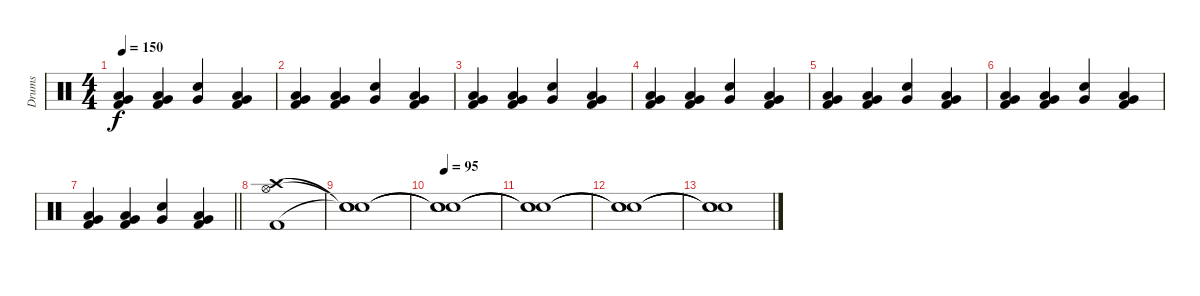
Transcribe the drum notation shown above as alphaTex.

\track ("Drums" "Drums") {instrument percussion}
\staff {score}
\articulation defaults
\ts (4 4)
\tempo 150
\clef neutral
\ks c
("Very Low Tom (hit)" "Low Floor Tom (hit)" "Kick (hit) 2").4{dy f} ("Very Low Tom (hit)" "Low Floor Tom (hit)" "Kick (hit) 2").4 ("Electric Snare (hit)" "Very Low Tom (hit)").4 ("Very Low Tom (hit)" "Low Floor Tom (hit)" "Kick (hit) 2").4 |
("Very Low Tom (hit)" "Low Floor Tom (hit)" "Kick (hit) 2").4 ("Very Low Tom (hit)" "Low Floor Tom (hit)" "Kick (hit) 2").4 ("Electric Snare (hit)" "Very Low Tom (hit)").4 ("Very Low Tom (hit)" "Low Floor Tom (hit)" "Kick (hit) 2").4 |
("Very Low Tom (hit)" "Low Floor Tom (hit)" "Kick (hit) 2").4 ("Very Low Tom (hit)" "Low Floor Tom (hit)" "Kick (hit) 2").4 ("Electric Snare (hit)" "Very Low Tom (hit)").4 ("Very Low Tom (hit)" "Low Floor Tom (hit)" "Kick (hit) 2").4 |
("Very Low Tom (hit)" "Low Floor Tom (hit)" "Kick (hit) 2").4 ("Very Low Tom (hit)" "Low Floor Tom (hit)" "Kick (hit) 2").4 ("Electric Snare (hit)" "Very Low Tom (hit)").4 ("Very Low Tom (hit)" "Low Floor Tom (hit)" "Kick (hit) 2").4 |
("Very Low Tom (hit)" "Low Floor Tom (hit)" "Kick (hit) 2").4 ("Very Low Tom (hit)" "Low Floor Tom (hit)" "Kick (hit) 2").4 ("Electric Snare (hit)" "Very Low Tom (hit)").4 ("Very Low Tom (hit)" "Low Floor Tom (hit)" "Kick (hit) 2").4 |
("Very Low Tom (hit)" "Low Floor Tom (hit)" "Kick (hit) 2").4 ("Very Low Tom (hit)" "Low Floor Tom (hit)" "Kick (hit) 2").4 ("Electric Snare (hit)" "Very Low Tom (hit)").4 ("Very Low Tom (hit)" "Low Floor Tom (hit)" "Kick (hit) 2").4 |
\barLineRight lightlight
("Very Low Tom (hit)" "Low Floor Tom (hit)" "Kick (hit) 2").4 ("Very Low Tom (hit)" "Low Floor Tom (hit)" "Kick (hit) 2").4 ("Electric Snare (hit)" "Very Low Tom (hit)").4 ("Very Low Tom (hit)" "Low Floor Tom (hit)" "Kick (hit) 2").4 |
("Crash high (hit)" "Hi-Hat (open)" "Kick (hit) 2").1 |
("Snare (hit)"{t} "Snare (hit)"{t} "Snare (hit)"{t}).1 |
\tempo 95
("Snare (hit)"{t} "Snare (hit)"{t} "Snare (hit)"{t}).1 |
("Snare (hit)"{t} "Snare (hit)"{t} "Snare (hit)"{t}).1 |
("Snare (hit)"{t} "Snare (hit)"{t} "Snare (hit)"{t}).1 |
("Snare (hit)"{t} "Snare (hit)"{t} "Snare (hit)"{t}).1
